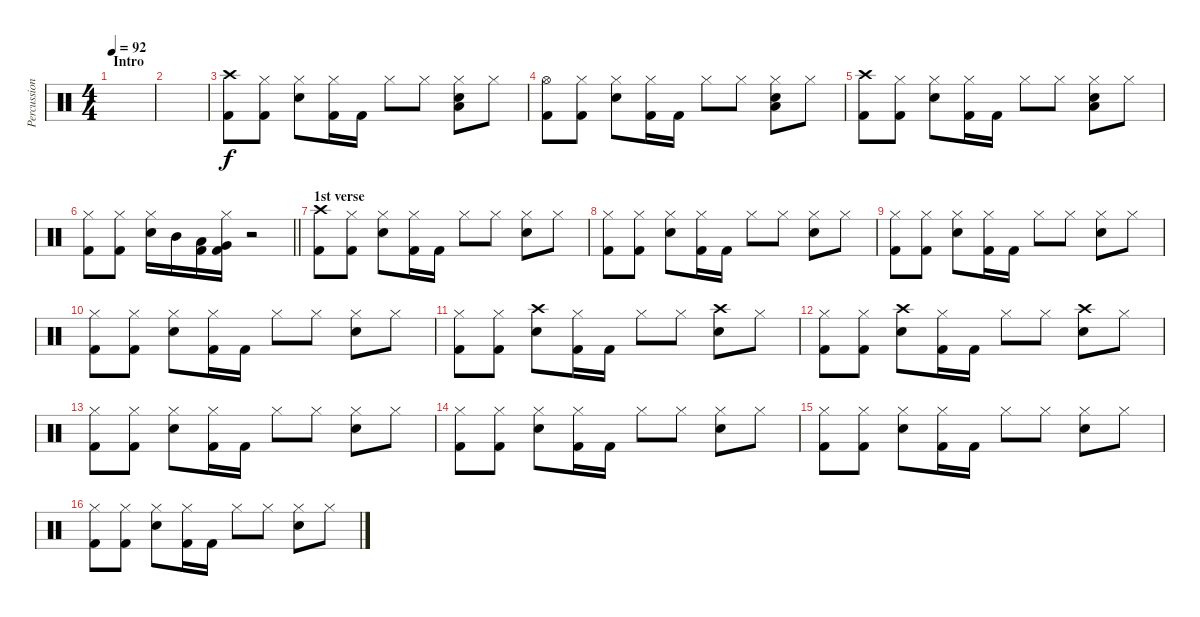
\track ("Percussion" "Percussion") {instrument percussion}
\staff {score}
\articulation defaults
\ts (4 4)
\section ("" "Intro")
\tempo 92
\clef neutral
\ks c
|
|
("Crash high (hit)" "Kick (hit) 2").8 ("Hi-Hat (closed)" "Kick (hit) 2").8 ("Hi-Hat (closed)" "Electric Snare (hit)").8 ("Hi-Hat (closed)" "Kick (hit) 2").16 "Kick (hit) 2".16 "Hi-Hat (closed)".8 "Hi-Hat (closed)".8 ("Hi-Hat (closed)" "Low Tom (hit)" "Electric Snare (hit)").8 "Hi-Hat (closed)".8 |
("Hi-Hat (open)" "Kick (hit) 2").8 ("Hi-Hat (closed)" "Kick (hit) 2").8 ("Hi-Hat (closed)" "Electric Snare (hit)").8 ("Hi-Hat (closed)" "Kick (hit) 2").16 "Kick (hit) 2".16 "Hi-Hat (closed)".8 "Hi-Hat (closed)".8 ("Hi-Hat (closed)" "Low Tom (hit)" "Electric Snare (hit)").8 "Hi-Hat (closed)".8 |
("Crash high (hit)" "Kick (hit) 2").8 ("Hi-Hat (closed)" "Kick (hit) 2").8 ("Hi-Hat (closed)" "Electric Snare (hit)").8 ("Hi-Hat (closed)" "Kick (hit) 2").16 "Kick (hit) 2".16 "Hi-Hat (closed)".8 "Hi-Hat (closed)".8 ("Hi-Hat (closed)" "Low Tom (hit)" "Electric Snare (hit)").8 "Hi-Hat (closed)".8 |
\barLineRight lightlight
("Hi-Hat (closed)" "Kick (hit) 2").8 ("Hi-Hat (closed)" "Kick (hit) 2").8 ("Hi-Hat (closed)" "Electric Snare (hit)").16 "Mid Tom (hit)".16 ("Low Tom (hit)" "Kick (hit) 2").16 ("Hi-Hat (closed)" "Very Low Tom (hit)" "Kick (hit) 2").16 r.2 |
\section ("" "1st verse")
("Crash high (hit)" "Kick (hit) 2").8 ("Hi-Hat (closed)" "Kick (hit) 2").8 ("Hi-Hat (closed)" "Electric Snare (hit)").8 ("Hi-Hat (closed)" "Kick (hit) 2").16 "Kick (hit) 2".16 "Hi-Hat (closed)".8 "Hi-Hat (closed)".8 ("Hi-Hat (closed)" "Electric Snare (hit)").8 "Hi-Hat (closed)".8 |
("Hi-Hat (closed)" "Kick (hit) 2").8 ("Hi-Hat (closed)" "Kick (hit) 2").8 ("Hi-Hat (closed)" "Electric Snare (hit)").8 ("Hi-Hat (closed)" "Kick (hit) 2").16 "Kick (hit) 2".16 "Hi-Hat (closed)".8 "Hi-Hat (closed)".8 ("Hi-Hat (closed)" "Electric Snare (hit)").8 "Hi-Hat (closed)".8 |
("Hi-Hat (closed)" "Kick (hit) 2").8 ("Hi-Hat (closed)" "Kick (hit) 2").8 ("Hi-Hat (closed)" "Electric Snare (hit)").8 ("Hi-Hat (closed)" "Kick (hit) 2").16 "Kick (hit) 2".16 "Hi-Hat (closed)".8 "Hi-Hat (closed)".8 ("Hi-Hat (closed)" "Electric Snare (hit)").8 "Hi-Hat (closed)".8 |
("Hi-Hat (closed)" "Kick (hit) 2").8 ("Hi-Hat (closed)" "Kick (hit) 2").8 ("Hi-Hat (closed)" "Electric Snare (hit)").8 ("Hi-Hat (closed)" "Kick (hit) 2").16 "Kick (hit) 2".16 "Hi-Hat (closed)".8 "Hi-Hat (closed)".8 ("Hi-Hat (closed)" "Electric Snare (hit)").8 "Hi-Hat (closed)".8 |
("Hi-Hat (closed)" "Kick (hit) 2").8 ("Hi-Hat (closed)" "Kick (hit) 2").8 ("Crash high (hit)" "Electric Snare (hit)").8 ("Hi-Hat (closed)" "Kick (hit) 2").16 "Kick (hit) 2".16 "Hi-Hat (closed)".8 "Hi-Hat (closed)".8 ("Crash high (hit)" "Electric Snare (hit)").8 "Hi-Hat (closed)".8 |
("Hi-Hat (closed)" "Kick (hit) 2").8 ("Hi-Hat (closed)" "Kick (hit) 2").8 ("Crash high (hit)" "Electric Snare (hit)").8 ("Hi-Hat (closed)" "Kick (hit) 2").16 "Kick (hit) 2".16 "Hi-Hat (closed)".8 "Hi-Hat (closed)".8 ("Crash high (hit)" "Electric Snare (hit)").8 "Hi-Hat (closed)".8 |
("Hi-Hat (closed)" "Kick (hit) 2").8 ("Hi-Hat (closed)" "Kick (hit) 2").8 ("Hi-Hat (closed)" "Electric Snare (hit)").8 ("Hi-Hat (closed)" "Kick (hit) 2").16 "Kick (hit) 2".16 "Hi-Hat (closed)".8 "Hi-Hat (closed)".8 ("Hi-Hat (closed)" "Electric Snare (hit)").8 "Hi-Hat (closed)".8 |
("Hi-Hat (closed)" "Kick (hit) 2").8 ("Hi-Hat (closed)" "Kick (hit) 2").8 ("Hi-Hat (closed)" "Electric Snare (hit)").8 ("Hi-Hat (closed)" "Kick (hit) 2").16 "Kick (hit) 2".16 "Hi-Hat (closed)".8 "Hi-Hat (closed)".8 ("Hi-Hat (closed)" "Electric Snare (hit)").8 "Hi-Hat (closed)".8 |
("Hi-Hat (closed)" "Kick (hit) 2").8 ("Hi-Hat (closed)" "Kick (hit) 2").8 ("Hi-Hat (closed)" "Electric Snare (hit)").8 ("Hi-Hat (closed)" "Kick (hit) 2").16 "Kick (hit) 2".16 "Hi-Hat (closed)".8 "Hi-Hat (closed)".8 ("Hi-Hat (closed)" "Electric Snare (hit)").8 "Hi-Hat (closed)".8 |
("Hi-Hat (closed)" "Kick (hit) 2").8 ("Hi-Hat (closed)" "Kick (hit) 2").8 ("Hi-Hat (closed)" "Electric Snare (hit)").8 ("Hi-Hat (closed)" "Kick (hit) 2").16 "Kick (hit) 2".16 "Hi-Hat (closed)".8 "Hi-Hat (closed)".8 ("Hi-Hat (closed)" "Electric Snare (hit)").8 "Hi-Hat (closed)".8
